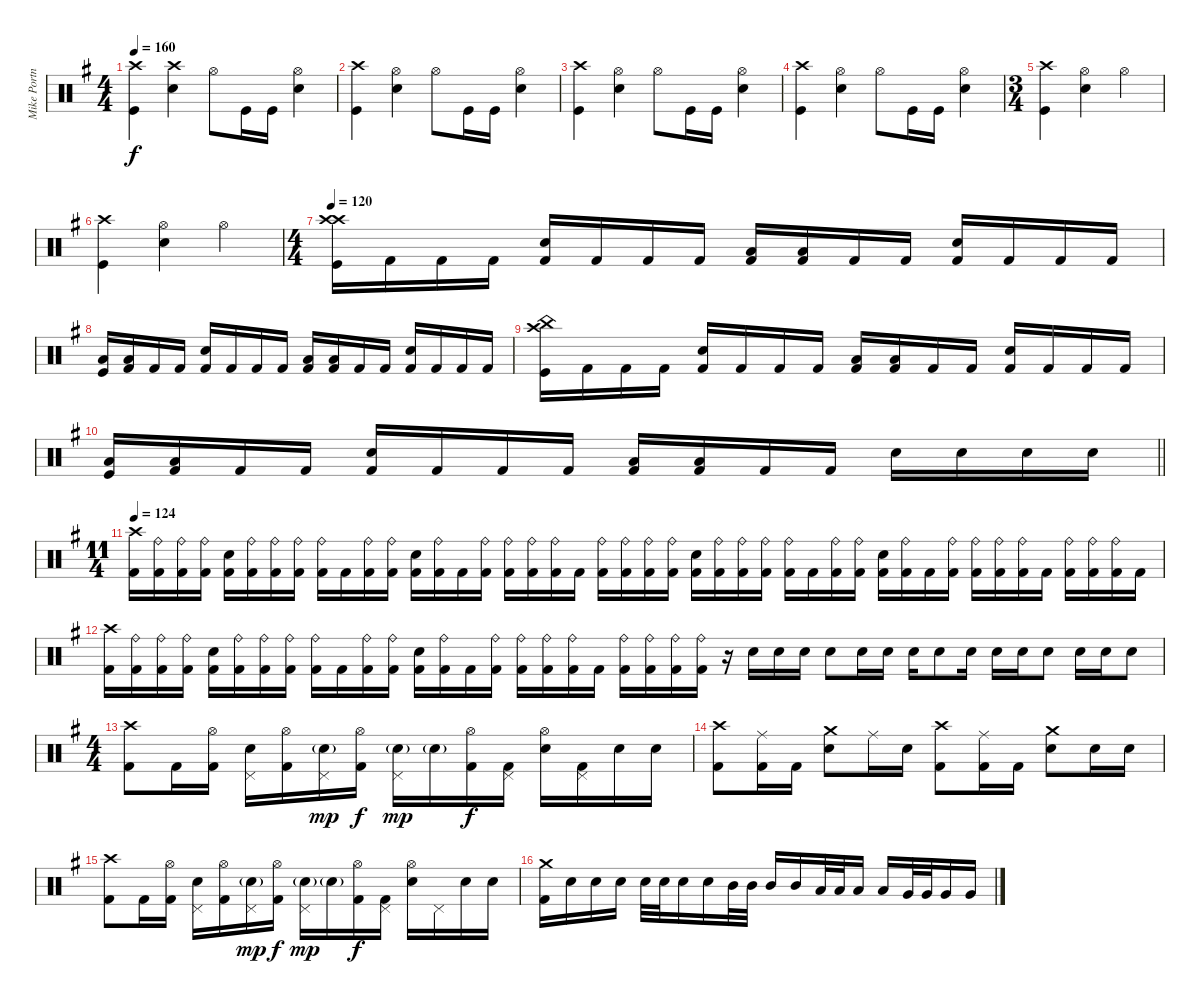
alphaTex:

\track ("Mike Portnoy - Drums" "Mike Portn") {instrument percussion}
\staff {score}
\articulation defaults
\ts (4 4)
\tempo 160
\clef neutral
\ks g
("Kick (hit)" "Crash high (hit)").4{dy f} ("Snare (hit) 2" "Crash high (hit)").4 "Hi-Hat (open)".8 "Kick (hit)".16 "Kick (hit)".16 ("Snare (hit) 2" "Hi-Hat (open)").4 |
("Kick (hit)" "Crash high (hit)").4 ("Snare (hit) 2" "Hi-Hat (open)").4 "Hi-Hat (open)".8 "Kick (hit)".16 "Kick (hit)".16 ("Snare (hit) 2" "Hi-Hat (open)").4 |
("Kick (hit)" "Crash high (hit)").4 ("Snare (hit) 2" "Hi-Hat (open)").4 "Hi-Hat (open)".8 "Kick (hit)".16 "Kick (hit)".16 ("Snare (hit) 2" "Hi-Hat (open)").4 |
("Kick (hit)" "Crash high (hit)").4 ("Snare (hit) 2" "Hi-Hat (open)").4 "Hi-Hat (open)".8 "Kick (hit)".16 "Kick (hit)".16 ("Snare (hit) 2" "Hi-Hat (open)").4 |
\ts (3 4)
("Kick (hit)" "Crash high (hit)").4 ("Snare (hit) 2" "Hi-Hat (open)").4 "Hi-Hat (open)".4 |
("Kick (hit)" "Crash high (hit)").4 ("Snare (hit) 2" "Hi-Hat (open)").4 "Hi-Hat (open)".4 |
\ts (4 4)
\tempo 120
("Crash high (hit)" "Crash high (hit)" "Kick (hit)").16 "Kick (hit) 2".16 "Kick (hit) 2".16 "Kick (hit) 2".16 ("Snare (hit) 2" "Kick (hit) 2").16 "Kick (hit) 2".16 "Kick (hit) 2".16 "Kick (hit) 2".16 ("Low Tom (hit)" "Kick (hit) 2").16 ("Low Floor Tom (hit)" "Kick (hit) 2").16 "Kick (hit) 2".16 "Kick (hit) 2".16 ("Snare (hit) 2" "Kick (hit) 2").16 "Kick (hit) 2".16 "Kick (hit) 2".16 "Kick (hit) 2".16 |
("Low Tom (hit)" "Kick (hit)").16 ("Low Floor Tom (hit)" "Kick (hit) 2").16 "Kick (hit) 2".16 "Kick (hit) 2".16 ("Snare (hit) 2" "Kick (hit) 2").16 "Kick (hit) 2".16 "Kick (hit) 2".16 "Kick (hit) 2".16 ("Low Tom (hit)" "Kick (hit) 2").16 ("Low Floor Tom (hit)" "Kick (hit) 2").16 "Kick (hit) 2".16 "Kick (hit) 2".16 ("Snare (hit) 2" "Kick (hit) 2").16 "Kick (hit) 2".16 "Kick (hit) 2".16 "Kick (hit) 2".16 |
("China (hit)" "Crash high (hit)" "Kick (hit)").16 "Kick (hit) 2".16 "Kick (hit) 2".16 "Kick (hit) 2".16 ("Snare (hit) 2" "Kick (hit) 2").16 "Kick (hit) 2".16 "Kick (hit) 2".16 "Kick (hit) 2".16 ("Low Tom (hit)" "Kick (hit) 2").16 ("Low Floor Tom (hit)" "Kick (hit) 2").16 "Kick (hit) 2".16 "Kick (hit) 2".16 ("Snare (hit) 2" "Kick (hit) 2").16 "Kick (hit) 2".16 "Kick (hit) 2".16 "Kick (hit) 2".16 |
\barLineRight lightlight
("Low Tom (hit)" "Kick (hit)").16 ("Low Floor Tom (hit)" "Kick (hit) 2").16 "Kick (hit) 2".16 "Kick (hit) 2".16 ("Snare (hit) 2" "Kick (hit) 2").16 "Kick (hit) 2".16 "Kick (hit) 2".16 "Kick (hit) 2".16 ("Low Tom (hit)" "Kick (hit) 2").16 ("Low Floor Tom (hit)" "Kick (hit) 2").16 "Kick (hit) 2".16 "Kick (hit) 2".16 "Snare (hit) 2".16 "Snare (hit) 2".16 "Snare (hit) 2".16 "Snare (hit) 2".16 |
\ts (11 4)
\tempo 124
("Crash high (hit)" "Kick (hit) 2").16 ("Ride (bell)" "Kick (hit) 2").16 ("Ride (bell)" "Kick (hit) 2").16 ("Ride (bell)" "Kick (hit) 2").16 ("Electric Snare (hit)" "Kick (hit) 2").16 ("Ride (bell)" "Kick (hit) 2").16 ("Ride (bell)" "Kick (hit) 2").16 ("Ride (bell)" "Kick (hit) 2").16 ("Ride (bell)" "Kick (hit) 2").16 "Kick (hit) 2".16 ("Ride (bell)" "Kick (hit) 2").16 ("Ride (bell)" "Kick (hit) 2").16 ("Electric Snare (hit)" "Kick (hit) 2").16 ("Ride (bell)" "Kick (hit) 2").16 "Kick (hit) 2".16 ("Ride (bell)" "Kick (hit) 2").16 ("Ride (bell)" "Kick (hit) 2").16 ("Ride (bell)" "Kick (hit) 2").16 ("Ride (bell)" "Kick (hit) 2").16 "Kick (hit) 2".16 ("Ride (bell)" "Kick (hit) 2").16 ("Ride (bell)" "Kick (hit) 2").16 ("Ride (bell)" "Kick (hit) 2").16 ("Ride (bell)" "Kick (hit) 2").16 ("Electric Snare (hit)" "Kick (hit) 2").16 ("Ride (bell)" "Kick (hit) 2").16 ("Ride (bell)" "Kick (hit) 2").16 ("Ride (bell)" "Kick (hit) 2").16 ("Ride (bell)" "Kick (hit) 2").16 "Kick (hit) 2".16 ("Ride (bell)" "Kick (hit) 2").16 ("Ride (bell)" "Kick (hit) 2").16 ("Electric Snare (hit)" "Kick (hit) 2").16 ("Ride (bell)" "Kick (hit) 2").16 "Kick (hit) 2".16 ("Ride (bell)" "Kick (hit) 2").16 ("Ride (bell)" "Kick (hit) 2").16 ("Ride (bell)" "Kick (hit) 2").16 ("Ride (bell)" "Kick (hit) 2").16 "Kick (hit) 2".16 ("Ride (bell)" "Kick (hit) 2").16 ("Ride (bell)" "Kick (hit) 2").16 ("Ride (bell)" "Kick (hit) 2").16 "Kick (hit) 2".16 |
("Crash high (hit)" "Kick (hit) 2").16 ("Ride (bell)" "Kick (hit) 2").16 ("Ride (bell)" "Kick (hit) 2").16 ("Ride (bell)" "Kick (hit) 2").16 ("Electric Snare (hit)" "Kick (hit) 2").16 ("Ride (bell)" "Kick (hit) 2").16 ("Ride (bell)" "Kick (hit) 2").16 ("Ride (bell)" "Kick (hit) 2").16 ("Ride (bell)" "Kick (hit) 2").16 "Kick (hit) 2".16 ("Ride (bell)" "Kick (hit) 2").16 ("Ride (bell)" "Kick (hit) 2").16 ("Electric Snare (hit)" "Kick (hit) 2").16 ("Ride (bell)" "Kick (hit) 2").16 "Kick (hit) 2".16 ("Ride (bell)" "Kick (hit) 2").16 ("Ride (bell)" "Kick (hit) 2").16 ("Ride (bell)" "Kick (hit) 2").16 ("Ride (bell)" "Kick (hit) 2").16 "Kick (hit) 2".16 ("Ride (bell)" "Kick (hit) 2").16 ("Ride (bell)" "Kick (hit) 2").16 ("Ride (bell)" "Kick (hit) 2").16 ("Ride (bell)" "Kick (hit) 2").16 r.16 "Electric Snare (hit)".16 "Electric Snare (hit)".16 "Electric Snare (hit)".16 "Electric Snare (hit)".8 "Electric Snare (hit)".16 "Electric Snare (hit)".16 "Electric Snare (hit)".16 "Electric Snare (hit)".8 "Electric Snare (hit)".16 "Electric Snare (hit)".16 "Electric Snare (hit)".16 "Electric Snare (hit)".8 "Electric Snare (hit)".16 "Electric Snare (hit)".16 "Electric Snare (hit)".8 |
\ts (4 4)
("Crash high (hit)" "Kick (hit) 2").8 "Kick (hit) 2".16 ("Hi-Hat (open)" "Kick (hit) 2").16 ("Pedal Hi-Hat (hit)" "Electric Snare (hit)").16 ("Hi-Hat (open)" "Kick (hit) 2").16 ("Pedal Hi-Hat (hit)" "Electric Snare (hit)"{g}).16{dy mp} ("Hi-Hat (open)" "Kick (hit) 2").16{dy f} ("Pedal Hi-Hat (hit)" "Electric Snare (hit)"{g}).16{dy mp} "Electric Snare (hit)"{g}.16 ("Hi-Hat (open)" "Kick (hit) 2").16{dy f} ("Pedal Hi-Hat (hit)" "Kick (hit) 2").16 ("Hi-Hat (open)" "Electric Snare (hit)").16 ("Pedal Hi-Hat (hit)" "Kick (hit) 2").16 "Electric Snare (hit)".16 "Electric Snare (hit)".16 |
("Crash high (hit)" "Kick (hit) 2").8 ("Ride (middle)" "Kick (hit) 2").16 "Kick (hit) 2".16 ("Crash medium (hit)" "Electric Snare (hit)").8 "Ride (middle)".16 "Electric Snare (hit)".16 ("Crash high (hit)" "Kick (hit) 2").8 ("Ride (middle)" "Kick (hit) 2").16 "Kick (hit) 2".16 ("Crash medium (hit)" "Electric Snare (hit)").8 "Electric Snare (hit)".16 "Electric Snare (hit)".16 |
("Crash high (hit)" "Kick (hit) 2").8 "Kick (hit) 2".16 ("Hi-Hat (open)" "Kick (hit) 2").16 ("Pedal Hi-Hat (hit)" "Electric Snare (hit)").16 ("Hi-Hat (open)" "Kick (hit) 2").16 ("Pedal Hi-Hat (hit)" "Electric Snare (hit)"{g}).16{dy mp} ("Hi-Hat (open)" "Kick (hit) 2").16{dy f} ("Pedal Hi-Hat (hit)" "Electric Snare (hit)"{g}).16{dy mp} "Electric Snare (hit)"{g}.16 ("Hi-Hat (open)" "Kick (hit) 2").16{dy f} ("Pedal Hi-Hat (hit)" "Kick (hit) 2").16 ("Hi-Hat (open)" "Electric Snare (hit)").16 "Pedal Hi-Hat (hit)".16 "Electric Snare (hit)".16 "Electric Snare (hit)".16 |
("Crash medium (hit)" "Kick (hit) 2").16 "Electric Snare (hit)".16 "Electric Snare (hit)".16 "Electric Snare (hit)".16 "Electric Snare (hit)".32 "Electric Snare (hit)".32 "Electric Snare (hit)".16 "Electric Snare (hit)".16 "Mid Tom (hit)".32 "Mid Tom (hit)".32 "Mid Tom (hit)".16 "Mid Tom (hit)".16 "Low Tom (hit)".32 "Low Tom (hit)".32 "Low Tom (hit)".16 "Low Tom (hit)".16 "Very Low Tom (hit)".32 "Very Low Tom (hit)".32 "Very Low Tom (hit)".16 "Very Low Tom (hit)".16
